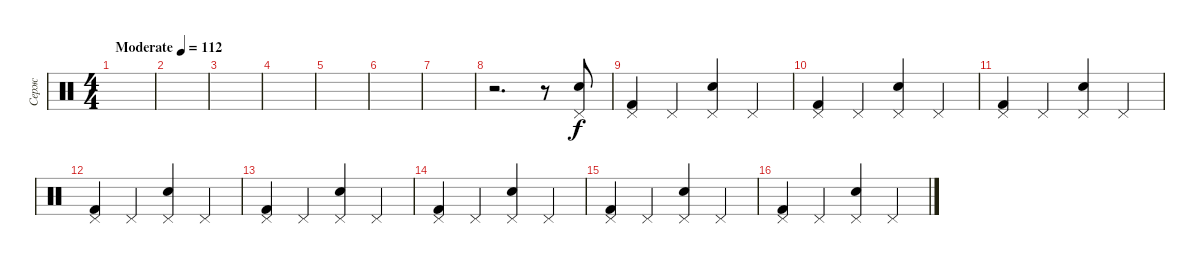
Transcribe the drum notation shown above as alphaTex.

\track ("Серж" "Серж") {instrument percussion}
\staff {score}
\articulation defaults
\ts (4 4)
\tempo (112 "Moderate")
\clef neutral
\ks c
|
|
|
|
|
|
|
r.2{d} r.8 ("Pedal Hi-Hat (hit)" "Electric Snare (hit)").8 |
("Pedal Hi-Hat (hit)" "Kick (hit) 2").4 "Pedal Hi-Hat (hit)".4 ("Pedal Hi-Hat (hit)" "Snare (hit) 2").4 "Pedal Hi-Hat (hit)".4 |
("Pedal Hi-Hat (hit)" "Kick (hit) 2").4 "Pedal Hi-Hat (hit)".4 ("Pedal Hi-Hat (hit)" "Snare (hit) 2").4 "Pedal Hi-Hat (hit)".4 |
("Pedal Hi-Hat (hit)" "Kick (hit) 2").4 "Pedal Hi-Hat (hit)".4 ("Pedal Hi-Hat (hit)" "Snare (hit) 2").4 "Pedal Hi-Hat (hit)".4 |
("Pedal Hi-Hat (hit)" "Kick (hit) 2").4 "Pedal Hi-Hat (hit)".4 ("Pedal Hi-Hat (hit)" "Snare (hit) 2").4 "Pedal Hi-Hat (hit)".4 |
("Pedal Hi-Hat (hit)" "Kick (hit) 2").4 "Pedal Hi-Hat (hit)".4 ("Pedal Hi-Hat (hit)" "Snare (hit) 2").4 "Pedal Hi-Hat (hit)".4 |
("Pedal Hi-Hat (hit)" "Kick (hit) 2").4 "Pedal Hi-Hat (hit)".4 ("Pedal Hi-Hat (hit)" "Snare (hit) 2").4 "Pedal Hi-Hat (hit)".4 |
("Pedal Hi-Hat (hit)" "Kick (hit) 2").4 "Pedal Hi-Hat (hit)".4 ("Pedal Hi-Hat (hit)" "Snare (hit) 2").4 "Pedal Hi-Hat (hit)".4 |
("Pedal Hi-Hat (hit)" "Kick (hit) 2").4 "Pedal Hi-Hat (hit)".4 ("Pedal Hi-Hat (hit)" "Snare (hit) 2").4 "Pedal Hi-Hat (hit)".4
